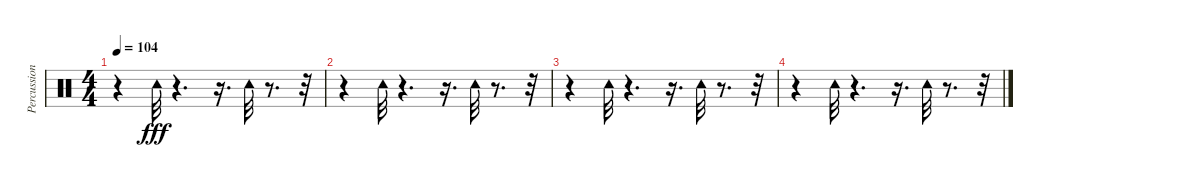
\track ("Percussion" "Percussion") {instrument percussion}
\staff {score}
\articulation defaults
\ts (4 4)
\tempo 104
\clef neutral
\ks c
r.4{dy fff} "Tambourine (hit)".32 r.4{d} r.16{d} "Tambourine (hit)".32 r.8{d} r.32 |
r.4 "Tambourine (hit)".32 r.4{d} r.16{d} "Tambourine (hit)".32 r.8{d} r.32 |
r.4 "Tambourine (hit)".32 r.4{d} r.16{d} "Tambourine (hit)".32 r.8{d} r.32 |
r.4 "Tambourine (hit)".32 r.4{d} r.16{d} "Tambourine (hit)".32 r.8{d} r.32
